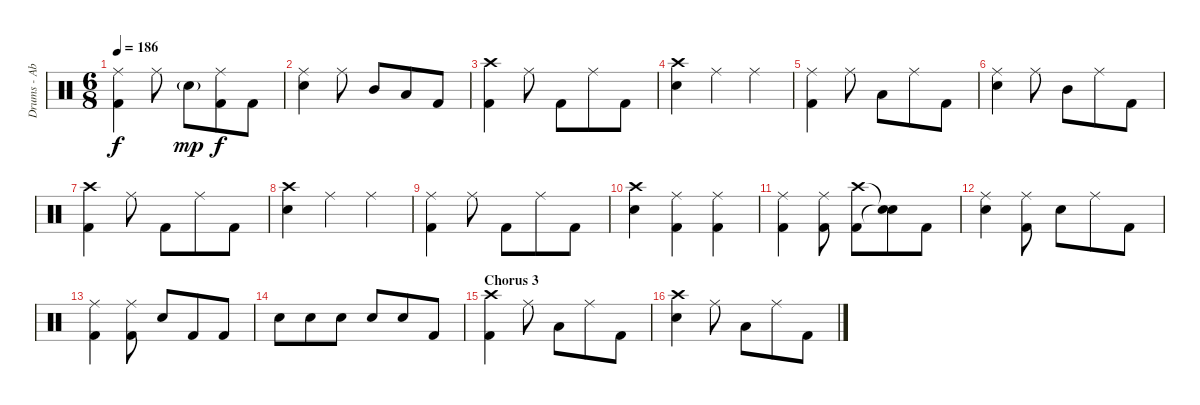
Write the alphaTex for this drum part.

\track ("Drums - Abe Cunningham" "Drums - Ab") {instrument percussion}
\staff {score}
\articulation defaults
\ts (6 8)
\tempo 186
\clef neutral
\ks c
("Ride (middle)" "Kick (hit) 2").4{dy f} "Ride (middle)".8 "Electric Snare (hit)"{g}.8{dy mp} ("Ride (middle)" "Kick (hit) 2").8{dy f} "Kick (hit) 2".8 |
("Ride (middle)" "Electric Snare (hit)").4 "Ride (middle)".8 "Mid Tom (hit)".8 "Low Tom (hit)".8 "Kick (hit) 2".8 |
("Crash high (hit)" "Kick (hit) 2").4 "Ride (middle)".8 "Kick (hit) 2".8 "Ride (middle)".8 "Kick (hit) 2".8 |
("Crash high (hit)" "Electric Snare (hit)").4 "Ride (middle)".4 "Ride (middle)".4 |
("Ride (middle)" "Kick (hit) 2").4 "Ride (middle)".8 "Low Tom (hit)".8 "Ride (middle)".8 "Kick (hit) 2".8 |
("Ride (middle)" "Electric Snare (hit)").4 "Ride (middle)".8 "Mid Tom (hit)".8 "Ride (middle)".8 "Kick (hit) 2".8 |
("Crash high (hit)" "Kick (hit) 2").4 "Ride (middle)".8 "Kick (hit) 2".8 "Ride (middle)".8 "Kick (hit) 2".8 |
("Crash high (hit)" "Electric Snare (hit)").4 "Ride (middle)".4 "Ride (middle)".4 |
("Ride (middle)" "Kick (hit) 2").4 "Ride (middle)".8 "Kick (hit) 2".8 "Ride (middle)".8 "Kick (hit) 2".8 |
("Crash high (hit)" "Electric Snare (hit)").4 ("Ride (middle)" "Kick (hit) 2").4 ("Ride (middle)" "Kick (hit) 2").4 |
("Ride (middle)" "Kick (hit) 2").4 ("Ride (middle)" "Kick (hit) 2").8 ("Crash high (hit)" "Kick (hit) 2").8 ("Snare (hit)"{t} "Snare (hit)"{t}).8 "Kick (hit) 2".8 |
("Ride (middle)" "Electric Snare (hit)").4 ("Ride (middle)" "Kick (hit) 2").8 "Electric Snare (hit)".8 "Ride (middle)".8 "Kick (hit) 2".8 |
("Ride (middle)" "Kick (hit) 2").4 ("Ride (middle)" "Kick (hit) 2").8 "Electric Snare (hit)".8 "Kick (hit) 2".8 "Kick (hit) 2".8 |
"Electric Snare (hit)".8 "Electric Snare (hit)".8 "Electric Snare (hit)".8 "Electric Snare (hit)".8 "Electric Snare (hit)".8 "Kick (hit) 2".8 |
\section ("" "Chorus 3")
("Crash high (hit)" "Kick (hit) 2").4 "Ride (middle)".8 "Low Tom (hit)".8 "Ride (middle)".8 "Kick (hit) 2".8 |
("Crash high (hit)" "Electric Snare (hit)").4 "Ride (middle)".8 "Low Tom (hit)".8 "Ride (middle)".8 "Kick (hit) 2".8
